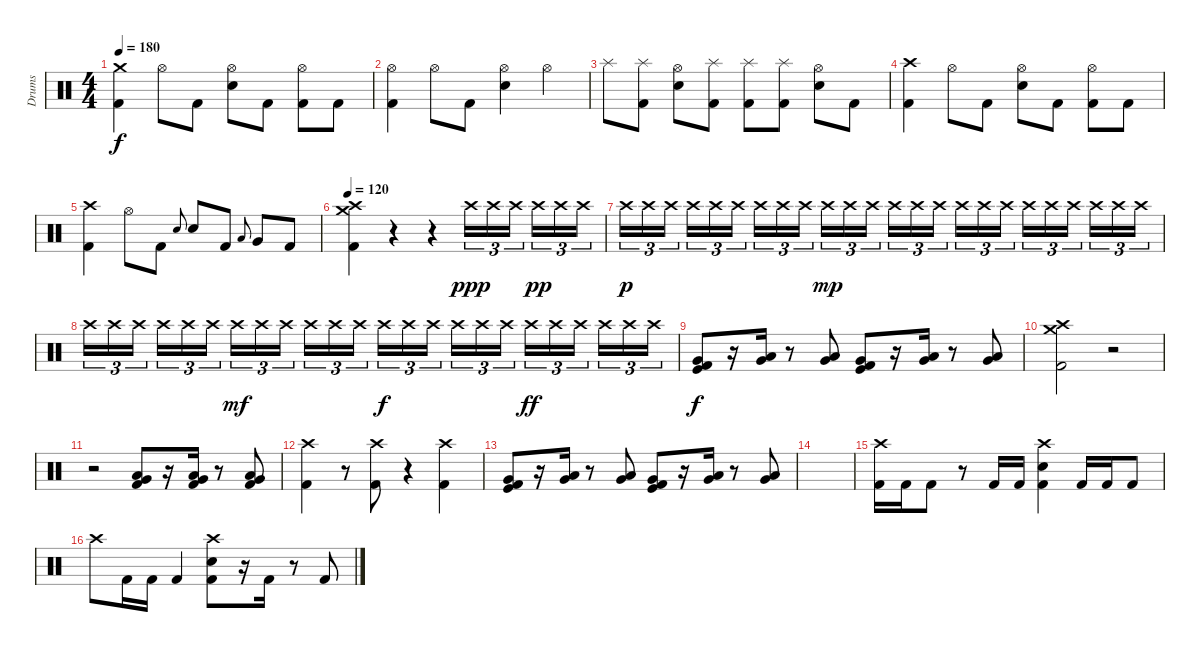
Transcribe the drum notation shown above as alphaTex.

\track ("Drums" "Drums") {instrument percussion}
\staff {score}
\articulation defaults
\ts (4 4)
\tempo 180
\clef neutral
\ks c
("Crash medium (hit)" "Kick (hit) 2").4{dy f} "Hi-Hat (open)".8 "Kick (hit) 2".8 ("Hi-Hat (open)" "Electric Snare (hit)").8 "Kick (hit) 2".8 ("Hi-Hat (open)" "Kick (hit) 2").8 "Kick (hit) 2".8 |
("Hi-Hat (open)" "Kick (hit) 2").4 "Hi-Hat (open)".8 "Kick (hit) 2".8 ("Hi-Hat (open)" "Electric Snare (hit)").4 "Hi-Hat (open)".4 |
"Splash (hit)".8 ("Splash (hit)" "Kick (hit) 2").8 ("Hi-Hat (open)" "Electric Snare (hit)").8 ("Splash (hit)" "Kick (hit) 2").8 ("Splash (hit)" "Kick (hit) 2").8 ("Splash (hit)" "Kick (hit) 2").8 ("Hi-Hat (open)" "Electric Snare (hit)").8 "Kick (hit) 2".8 |
("Crash high (hit)" "Kick (hit) 2").4 "Hi-Hat (open)".8 "Kick (hit) 2".8 ("Hi-Hat (open)" "Electric Snare (hit)").8 "Kick (hit) 2".8 ("Hi-Hat (open)" "Kick (hit) 2").8 "Kick (hit) 2".8 |
("Crash high (hit)" "Kick (hit) 2").4 "Hi-Hat (open)".8 "Kick (hit) 2".8 "Electric Snare (hit)".8{gr onbeat} "Electric Snare (hit)".8 "Kick (hit) 2".8 "Low Floor Tom (hit)".8{gr onbeat} "Very Low Tom (hit)".8 "Kick (hit) 2".8 |
\tempo 120
("Crash high (hit)" "Crash medium (hit)" "Kick (hit) 2").4 r.4 r.4 "Crash high (hit)".16{tu (3 2) dy ppp} "Crash high (hit)".16{tu (3 2)} "Crash high (hit)".16{tu (3 2) beam splitsecondary} "Crash high (hit)".16{tu (3 2) dy pp} "Crash high (hit)".16{tu (3 2)} "Crash high (hit)".16{tu (3 2)} |
"Crash high (hit)".16{tu (3 2) dy p} "Crash high (hit)".16{tu (3 2)} "Crash high (hit)".16{tu (3 2) beam splitsecondary} "Crash high (hit)".16{tu (3 2)} "Crash high (hit)".16{tu (3 2)} "Crash high (hit)".16{tu (3 2)} "Crash high (hit)".16{tu (3 2)} "Crash high (hit)".16{tu (3 2)} "Crash high (hit)".16{tu (3 2) beam splitsecondary} "Crash high (hit)".16{tu (3 2) dy mp} "Crash high (hit)".16{tu (3 2)} "Crash high (hit)".16{tu (3 2)} "Crash high (hit)".16{tu (3 2)} "Crash high (hit)".16{tu (3 2)} "Crash high (hit)".16{tu (3 2) beam splitsecondary} "Crash high (hit)".16{tu (3 2)} "Crash high (hit)".16{tu (3 2)} "Crash high (hit)".16{tu (3 2)} "Crash high (hit)".16{tu (3 2)} "Crash high (hit)".16{tu (3 2)} "Crash high (hit)".16{tu (3 2) beam splitsecondary} "Crash high (hit)".16{tu (3 2)} "Crash high (hit)".16{tu (3 2)} "Crash high (hit)".16{tu (3 2)} |
"Crash high (hit)".16{tu (3 2)} "Crash high (hit)".16{tu (3 2)} "Crash high (hit)".16{tu (3 2) beam splitsecondary} "Crash high (hit)".16{tu (3 2)} "Crash high (hit)".16{tu (3 2)} "Crash high (hit)".16{tu (3 2)} "Crash high (hit)".16{tu (3 2) dy mf} "Crash high (hit)".16{tu (3 2)} "Crash high (hit)".16{tu (3 2) beam splitsecondary} "Crash high (hit)".16{tu (3 2)} "Crash high (hit)".16{tu (3 2)} "Crash high (hit)".16{tu (3 2)} "Crash high (hit)".16{tu (3 2) dy f} "Crash high (hit)".16{tu (3 2)} "Crash high (hit)".16{tu (3 2) beam splitsecondary} "Crash high (hit)".16{tu (3 2)} "Crash high (hit)".16{tu (3 2)} "Crash high (hit)".16{tu (3 2)} "Crash high (hit)".16{tu (3 2) dy ff} "Crash high (hit)".16{tu (3 2)} "Crash high (hit)".16{tu (3 2) beam splitsecondary} "Crash high (hit)".16{tu (3 2)} "Crash high (hit)".16{tu (3 2)} "Crash high (hit)".16{tu (3 2)} |
("Very Low Tom (hit)" "Kick (hit)" "Kick (hit) 2").8{dy f} r.16 ("Low Floor Tom (hit)" "Very Low Tom (hit)").16 r.8 ("Low Floor Tom (hit)" "Very Low Tom (hit)").8 ("Very Low Tom (hit)" "Kick (hit)" "Kick (hit) 2").8 r.16 ("Low Floor Tom (hit)" "Very Low Tom (hit)").16 r.8 ("Low Floor Tom (hit)" "Very Low Tom (hit)").8 |
("Crash high (hit)" "Crash medium (hit)" "Kick (hit) 2").2 r.2 |
r.2 ("Low Floor Tom (hit)" "Very Low Tom (hit)" "Kick (hit) 2").8 r.16 ("Low Floor Tom (hit)" "Very Low Tom (hit)" "Kick (hit) 2").16 r.8 ("Low Floor Tom (hit)" "Very Low Tom (hit)" "Kick (hit) 2").8 |
("Crash high (hit)" "Kick (hit) 2").4 r.8 ("Crash high (hit)" "Kick (hit) 2").8 r.4 ("Crash high (hit)" "Kick (hit) 2").4 |
("Very Low Tom (hit)" "Kick (hit)" "Kick (hit) 2").8 r.16 ("Low Floor Tom (hit)" "Very Low Tom (hit)").16 r.8 ("Low Floor Tom (hit)" "Very Low Tom (hit)").8 ("Very Low Tom (hit)" "Kick (hit)" "Kick (hit) 2").8 r.16 ("Low Floor Tom (hit)" "Very Low Tom (hit)").16 r.8 ("Low Floor Tom (hit)" "Very Low Tom (hit)").8 |
|
("Crash high (hit)" "Kick (hit) 2").16 "Kick (hit) 2".16 "Kick (hit) 2".8 r.8 "Kick (hit) 2".16 "Kick (hit) 2".16 ("Crash high (hit)" "Electric Snare (hit)" "Kick (hit) 2").4 "Kick (hit) 2".16 "Kick (hit) 2".16 "Kick (hit) 2".8 |
"Crash high (hit)".8 "Kick (hit) 2".16 "Kick (hit) 2".16 "Kick (hit) 2".4 ("Crash high (hit)" "Electric Snare (hit)" "Kick (hit) 2").8 r.16 "Kick (hit) 2".16 r.8 "Kick (hit) 2".8
